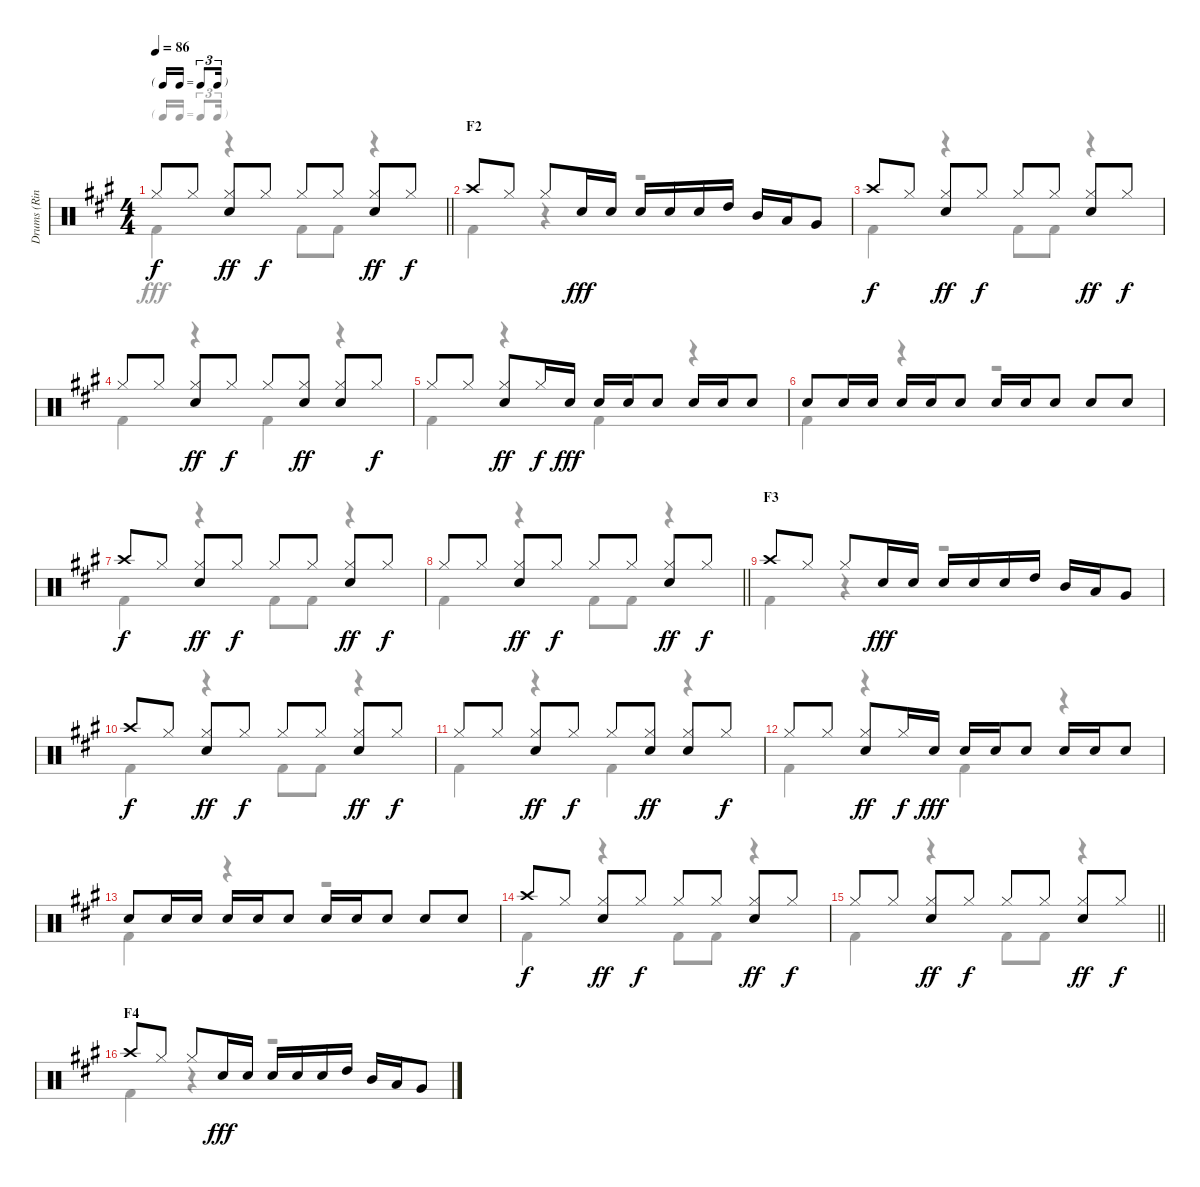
\track ("Drums (Ringo Starr)" "Drums (Rin") {instrument percussion}
\staff {score}
\articulation defaults
\voice
\ts (4 4)
\tf triplet16th
\tempo 86
\clef neutral
\barLineRight lightlight
\ks a "Hi-Hat (closed)".8{dy f} "Hi-Hat (closed)".8
("Hi-Hat (closed)" "Snare (hit) 2").8{dy ff} "Hi-Hat (closed)".8{dy f} "Hi-Hat (closed)".8 "Hi-Hat (closed)".8 ("Hi-Hat (closed)" "Snare (hit) 2").8{dy ff} "Hi-Hat (closed)".8{dy f} |
\section ("" "F2")
"Crash high (hit)".8 "Hi-Hat (closed)".8 "Hi-Hat (closed)".8 "Snare (hit) 2".16{dy fff} "Snare (hit) 2".16 "Snare (hit) 2".16 "Snare (hit) 2".16 "Snare (hit) 2".16 "High Tom (hit)".16 "Mid Tom (hit)".16 "Low Tom (hit)".16 "Very Low Tom (hit)".8 |
"Crash high (hit)".8{dy f} "Hi-Hat (closed)".8 ("Hi-Hat (closed)" "Snare (hit) 2").8{dy ff volume 8} "Hi-Hat (closed)".8{dy f} "Hi-Hat (closed)".8 "Hi-Hat (closed)".8 ("Hi-Hat (closed)" "Snare (hit) 2").8{dy ff} "Hi-Hat (closed)".8{dy f} |
"Hi-Hat (closed)".8 "Hi-Hat (closed)".8 ("Hi-Hat (closed)" "Snare (hit) 2").8{dy ff} "Hi-Hat (closed)".8{dy f} "Hi-Hat (closed)".8 ("Hi-Hat (closed)" "Snare (hit) 2").8{dy ff} ("Hi-Hat (closed)" "Snare (hit) 2").8 "Hi-Hat (closed)".8{dy f} |
"Hi-Hat (closed)".8 "Hi-Hat (closed)".8 ("Hi-Hat (closed)" "Snare (hit) 2").8{dy ff} "Hi-Hat (closed)".16{dy f} "Snare (hit) 2".16{dy fff} "Snare (hit) 2".16 "Snare (hit) 2".16 "Snare (hit) 2".8 "Snare (hit) 2".16 "Snare (hit) 2".16 "Snare (hit) 2".8 |
"Snare (hit) 2".8{volume 6} "Snare (hit) 2".16 "Snare (hit) 2".16 "Snare (hit) 2".16 "Snare (hit) 2".16 "Snare (hit) 2".8 "Snare (hit) 2".16 "Snare (hit) 2".16 "Snare (hit) 2".8 "Snare (hit) 2".8 "Snare (hit) 2".8 |
"Crash high (hit)".8{dy f} "Hi-Hat (closed)".8 ("Hi-Hat (closed)" "Snare (hit) 2").8{dy ff} "Hi-Hat (closed)".8{dy f} "Hi-Hat (closed)".8 "Hi-Hat (closed)".8 ("Hi-Hat (closed)" "Snare (hit) 2").8{dy ff} "Hi-Hat (closed)".8{dy f} |
\barLineRight lightlight "Hi-Hat (closed)".8 "Hi-Hat (closed)".8
("Hi-Hat (closed)" "Snare (hit) 2").8{dy ff} "Hi-Hat (closed)".8{dy f} "Hi-Hat (closed)".8 "Hi-Hat (closed)".8 ("Hi-Hat (closed)" "Snare (hit) 2").8{dy ff volume 4} "Hi-Hat (closed)".8{dy f} |
\section ("" "F3")
"Crash high (hit)".8 "Hi-Hat (closed)".8 "Hi-Hat (closed)".8 "Snare (hit) 2".16{dy fff} "Snare (hit) 2".16 "Snare (hit) 2".16 "Snare (hit) 2".16 "Snare (hit) 2".16 "High Tom (hit)".16 "Mid Tom (hit)".16 "Low Tom (hit)".16 "Very Low Tom (hit)".8 |
"Crash high (hit)".8{dy f} "Hi-Hat (closed)".8 ("Hi-Hat (closed)" "Snare (hit) 2").8{dy ff} "Hi-Hat (closed)".8{dy f} "Hi-Hat (closed)".8 "Hi-Hat (closed)".8 ("Hi-Hat (closed)" "Snare (hit) 2").8{dy ff} "Hi-Hat (closed)".8{dy f} |
"Hi-Hat (closed)".8 "Hi-Hat (closed)".8 ("Hi-Hat (closed)" "Snare (hit) 2").8{dy ff} "Hi-Hat (closed)".8{dy f} "Hi-Hat (closed)".8{volume 2} ("Hi-Hat (closed)" "Snare (hit) 2").8{dy ff} ("Hi-Hat (closed)" "Snare (hit) 2").8 "Hi-Hat (closed)".8{dy f} |
"Hi-Hat (closed)".8 "Hi-Hat (closed)".8 ("Hi-Hat (closed)" "Snare (hit) 2").8{dy ff} "Hi-Hat (closed)".16{dy f} "Snare (hit) 2".16{dy fff} "Snare (hit) 2".16 "Snare (hit) 2".16 "Snare (hit) 2".8 "Snare (hit) 2".16 "Snare (hit) 2".16 "Snare (hit) 2".8 |
"Snare (hit) 2".8 "Snare (hit) 2".16 "Snare (hit) 2".16 "Snare (hit) 2".16 "Snare (hit) 2".16 "Snare (hit) 2".8 "Snare (hit) 2".16 "Snare (hit) 2".16 "Snare (hit) 2".8 "Snare (hit) 2".8 "Snare (hit) 2".8 |
"Crash high (hit)".8{dy f} "Hi-Hat (closed)".8 ("Hi-Hat (closed)" "Snare (hit) 2").8{dy ff volume 0} "Hi-Hat (closed)".8{dy f} "Hi-Hat (closed)".8 "Hi-Hat (closed)".8 ("Hi-Hat (closed)" "Snare (hit) 2").8{dy ff} "Hi-Hat (closed)".8{dy f} |
\barLineRight lightlight "Hi-Hat (closed)".8 "Hi-Hat (closed)".8
("Hi-Hat (closed)" "Snare (hit) 2").8{dy ff} "Hi-Hat (closed)".8{dy f} "Hi-Hat (closed)".8 "Hi-Hat (closed)".8 ("Hi-Hat (closed)" "Snare (hit) 2").8{dy ff} "Hi-Hat (closed)".8{dy f} |
\section ("" "F4")
"Crash high (hit)".8 "Hi-Hat (closed)".8 "Hi-Hat (closed)".8 "Snare (hit) 2".16{dy fff} "Snare (hit) 2".16 "Snare (hit) 2".16 "Snare (hit) 2".16 "Snare (hit) 2".16 "High Tom (hit)".16 "Mid Tom (hit)".16 "Low Tom (hit)".16 "Very Low Tom (hit)".8
\voice
\clef neutral
\ottava regular
\simile none
\barLineRight lightlight
\ks a "Kick (hit) 2".4{dy fff}
r.4 "Kick (hit) 2".8 "Kick (hit) 2".8 r.4 |
"Kick (hit) 2".4 r.4 r.2 |
"Kick (hit) 2".4 r.4 "Kick (hit) 2".8 "Kick (hit) 2".8 r.4 |
"Kick (hit) 2".4 r.4 "Kick (hit) 2".4 r.4 |
"Kick (hit) 2".4 r.4 "Kick (hit) 2".4 r.4 |
"Kick (hit) 2".4 r.4 r.2 |
"Kick (hit) 2".4 r.4 "Kick (hit) 2".8 "Kick (hit) 2".8 r.4 |
\barLineRight lightlight "Kick (hit) 2".4
r.4 "Kick (hit) 2".8 "Kick (hit) 2".8 r.4 |
"Kick (hit) 2".4 r.4 r.2 |
"Kick (hit) 2".4 r.4 "Kick (hit) 2".8 "Kick (hit) 2".8 r.4 |
"Kick (hit) 2".4 r.4 "Kick (hit) 2".4 r.4 |
"Kick (hit) 2".4 r.4 "Kick (hit) 2".4 r.4 |
"Kick (hit) 2".4 r.4 r.2 |
"Kick (hit) 2".4 r.4 "Kick (hit) 2".8 "Kick (hit) 2".8 r.4 |
\barLineRight lightlight "Kick (hit) 2".4
r.4 "Kick (hit) 2".8 "Kick (hit) 2".8 r.4 |
"Kick (hit) 2".4 r.4 r.2
